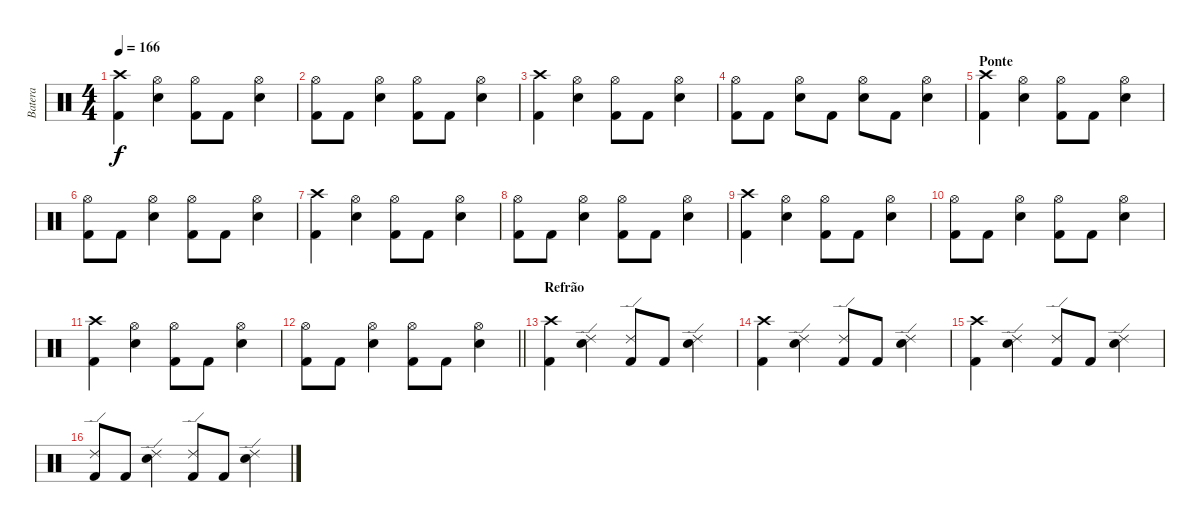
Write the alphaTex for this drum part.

\track ("Batera" "Batera") {instrument percussion}
\staff {score}
\articulation defaults
\ts (4 4)
\tempo 166
\clef neutral
\ks c
("Crash high (hit)" "Kick (hit) 2").4{dy f} ("Hi-Hat (open)" "Snare (hit) 2").4 ("Hi-Hat (open)" "Kick (hit) 2").8 "Kick (hit) 2".8 ("Hi-Hat (open)" "Snare (hit) 2").4 |
("Hi-Hat (open)" "Kick (hit) 2").8 "Kick (hit) 2".8 ("Hi-Hat (open)" "Snare (hit) 2").4 ("Hi-Hat (open)" "Kick (hit) 2").8 "Kick (hit) 2".8 ("Hi-Hat (open)" "Snare (hit) 2").4 |
("Crash high (hit)" "Kick (hit) 2").4 ("Hi-Hat (open)" "Snare (hit) 2").4 ("Hi-Hat (open)" "Kick (hit) 2").8 "Kick (hit) 2".8 ("Hi-Hat (open)" "Snare (hit) 2").4 |
("Hi-Hat (open)" "Kick (hit) 2").8 "Kick (hit) 2".8 ("Hi-Hat (open)" "Snare (hit) 2").8 "Kick (hit) 2".8 ("Hi-Hat (open)" "Snare (hit) 2").8 "Kick (hit) 2".8 ("Hi-Hat (open)" "Snare (hit) 2").4 |
\section ("" "Ponte")
("Crash high (hit)" "Kick (hit) 2").4 ("Hi-Hat (open)" "Snare (hit) 2").4 ("Hi-Hat (open)" "Kick (hit) 2").8 "Kick (hit) 2".8 ("Hi-Hat (open)" "Snare (hit) 2").4 |
("Hi-Hat (open)" "Kick (hit) 2").8 "Kick (hit) 2".8 ("Hi-Hat (open)" "Snare (hit) 2").4 ("Hi-Hat (open)" "Kick (hit) 2").8 "Kick (hit) 2".8 ("Hi-Hat (open)" "Snare (hit) 2").4 |
("Crash high (hit)" "Kick (hit) 2").4 ("Hi-Hat (open)" "Snare (hit) 2").4 ("Hi-Hat (open)" "Kick (hit) 2").8 "Kick (hit) 2".8 ("Hi-Hat (open)" "Snare (hit) 2").4 |
("Hi-Hat (open)" "Kick (hit) 2").8 "Kick (hit) 2".8 ("Hi-Hat (open)" "Snare (hit) 2").4 ("Hi-Hat (open)" "Kick (hit) 2").8 "Kick (hit) 2".8 ("Hi-Hat (open)" "Snare (hit) 2").4 |
("Crash high (hit)" "Kick (hit) 2").4 ("Hi-Hat (open)" "Snare (hit) 2").4 ("Hi-Hat (open)" "Kick (hit) 2").8 "Kick (hit) 2".8 ("Hi-Hat (open)" "Snare (hit) 2").4 |
("Hi-Hat (open)" "Kick (hit) 2").8 "Kick (hit) 2".8 ("Hi-Hat (open)" "Snare (hit) 2").4 ("Hi-Hat (open)" "Kick (hit) 2").8 "Kick (hit) 2".8 ("Hi-Hat (open)" "Snare (hit) 2").4 |
("Crash high (hit)" "Kick (hit) 2").4 ("Hi-Hat (open)" "Snare (hit) 2").4 ("Hi-Hat (open)" "Kick (hit) 2").8 "Kick (hit) 2".8 ("Hi-Hat (open)" "Snare (hit) 2").4 |
\barLineRight lightlight
("Hi-Hat (open)" "Kick (hit) 2").8 "Kick (hit) 2".8 ("Hi-Hat (open)" "Snare (hit) 2").4 ("Hi-Hat (open)" "Kick (hit) 2").8 "Kick (hit) 2".8 ("Hi-Hat (open)" "Snare (hit) 2").4 |
\section ("" "Refrão")
("Crash high (hit)" "Kick (hit) 2").4 ("Ride (edge) 2" "Snare (hit) 2").4 ("Ride (edge) 2" "Kick (hit) 2").8 "Kick (hit) 2".8 ("Ride (edge) 2" "Snare (hit) 2").4 |
("Crash high (hit)" "Kick (hit) 2").4 ("Ride (edge) 2" "Snare (hit) 2").4 ("Ride (edge) 2" "Kick (hit) 2").8 "Kick (hit) 2".8 ("Ride (edge) 2" "Snare (hit) 2").4 |
("Crash high (hit)" "Kick (hit) 2").4 ("Ride (edge) 2" "Snare (hit) 2").4 ("Ride (edge) 2" "Kick (hit) 2").8 "Kick (hit) 2".8 ("Ride (edge) 2" "Snare (hit) 2").4 |
("Ride (edge) 2" "Kick (hit) 2").8 "Kick (hit) 2".8 ("Ride (edge) 2" "Snare (hit) 2").4 ("Ride (edge) 2" "Kick (hit) 2").8 "Kick (hit) 2".8 ("Ride (edge) 2" "Snare (hit) 2").4
